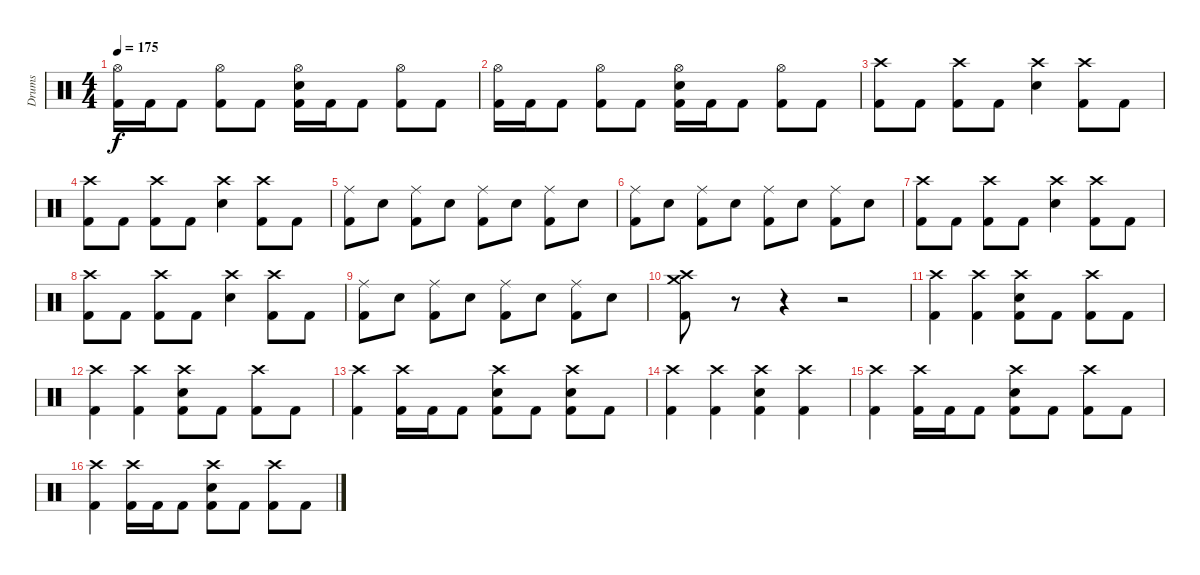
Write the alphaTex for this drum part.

\track ("Drums" "Drums") {instrument percussion}
\staff {score}
\articulation defaults
\ts (4 4)
\tempo 175
\clef neutral
\ks c
("Hi-Hat (open)" "Kick (hit) 2").16{dy f} "Kick (hit) 2".16 "Kick (hit) 2".8 ("Hi-Hat (open)" "Kick (hit) 2").8 "Kick (hit) 2".8 ("Hi-Hat (open)" "Snare (hit) 2" "Kick (hit) 2").16 "Kick (hit) 2".16 "Kick (hit) 2".8 ("Hi-Hat (open)" "Kick (hit) 2").8 "Kick (hit) 2".8 |
("Hi-Hat (open)" "Kick (hit) 2").16 "Kick (hit) 2".16 "Kick (hit) 2".8 ("Hi-Hat (open)" "Kick (hit) 2").8 "Kick (hit) 2".8 ("Hi-Hat (open)" "Snare (hit) 2" "Kick (hit) 2").16 "Kick (hit) 2".16 "Kick (hit) 2".8 ("Hi-Hat (open)" "Kick (hit) 2").8 "Kick (hit) 2".8 |
("Crash high (hit)" "Kick (hit) 2").8 "Kick (hit) 2".8 ("Crash high (hit)" "Kick (hit) 2").8 "Kick (hit) 2".8 ("Crash high (hit)" "Snare (hit) 2").4 ("Crash high (hit)" "Kick (hit) 2").8 "Kick (hit) 2".8 |
("Crash high (hit)" "Kick (hit) 2").8 "Kick (hit) 2".8 ("Crash high (hit)" "Kick (hit) 2").8 "Kick (hit) 2".8 ("Crash high (hit)" "Snare (hit) 2").4 ("Crash high (hit)" "Kick (hit) 2").8 "Kick (hit) 2".8 |
("Ride (middle)" "Kick (hit) 2").8 "Snare (hit) 2".8 ("Ride (middle)" "Kick (hit) 2").8 "Snare (hit) 2".8 ("Ride (middle)" "Kick (hit) 2").8 "Snare (hit) 2".8 ("Ride (middle)" "Kick (hit) 2").8 "Snare (hit) 2".8 |
("Ride (middle)" "Kick (hit) 2").8 "Snare (hit) 2".8 ("Ride (middle)" "Kick (hit) 2").8 "Snare (hit) 2".8 ("Ride (middle)" "Kick (hit) 2").8 "Snare (hit) 2".8 ("Ride (middle)" "Kick (hit) 2").8 "Snare (hit) 2".8 |
("Crash high (hit)" "Kick (hit) 2").8 "Kick (hit) 2".8 ("Crash high (hit)" "Kick (hit) 2").8 "Kick (hit) 2".8 ("Crash high (hit)" "Snare (hit) 2").4 ("Crash high (hit)" "Kick (hit) 2").8 "Kick (hit) 2".8 |
("Crash high (hit)" "Kick (hit) 2").8 "Kick (hit) 2".8 ("Crash high (hit)" "Kick (hit) 2").8 "Kick (hit) 2".8 ("Crash high (hit)" "Snare (hit) 2").4 ("Crash high (hit)" "Kick (hit) 2").8 "Kick (hit) 2".8 |
("Ride (middle)" "Kick (hit) 2").8 "Snare (hit) 2".8 ("Ride (middle)" "Kick (hit) 2").8 "Snare (hit) 2".8 ("Ride (middle)" "Kick (hit) 2").8 "Snare (hit) 2".8 ("Ride (middle)" "Kick (hit) 2").8 "Snare (hit) 2".8 |
("Crash medium (hit)" "Crash high (hit)" "Kick (hit) 2").8 r.8 r.4 r.2 |
("Crash high (hit)" "Kick (hit) 2").4 ("Crash high (hit)" "Kick (hit) 2").4 ("Crash high (hit)" "Snare (hit) 2" "Kick (hit) 2").8 "Kick (hit) 2".8 ("Crash high (hit)" "Kick (hit) 2").8 "Kick (hit) 2".8 |
("Crash high (hit)" "Kick (hit) 2").4 ("Crash high (hit)" "Kick (hit) 2").4 ("Crash high (hit)" "Snare (hit) 2" "Kick (hit) 2").8 "Kick (hit) 2".8 ("Crash high (hit)" "Kick (hit) 2").8 "Kick (hit) 2".8 |
("Crash high (hit)" "Kick (hit) 2").4 ("Crash high (hit)" "Kick (hit) 2").16 "Kick (hit) 2".16 "Kick (hit) 2".8 ("Crash high (hit)" "Snare (hit) 2" "Kick (hit) 2").8 "Kick (hit) 2".8 ("Crash high (hit)" "Snare (hit) 2" "Kick (hit) 2").8 "Kick (hit) 2".8 |
("Crash high (hit)" "Kick (hit) 2").4 ("Crash high (hit)" "Kick (hit) 2").4 ("Crash high (hit)" "Snare (hit) 2" "Kick (hit) 2").4 ("Crash high (hit)" "Kick (hit) 2").4 |
("Crash high (hit)" "Kick (hit) 2").4 ("Crash high (hit)" "Kick (hit) 2").16 "Kick (hit) 2".16 "Kick (hit) 2".8 ("Crash high (hit)" "Snare (hit) 2" "Kick (hit) 2").8 "Kick (hit) 2".8 ("Crash high (hit)" "Kick (hit) 2").8 "Kick (hit) 2".8 |
("Crash high (hit)" "Kick (hit) 2").4 ("Crash high (hit)" "Kick (hit) 2").16 "Kick (hit) 2".16 "Kick (hit) 2".8 ("Crash high (hit)" "Snare (hit) 2" "Kick (hit) 2").8 "Kick (hit) 2".8 ("Crash high (hit)" "Kick (hit) 2").8 "Kick (hit) 2".8
